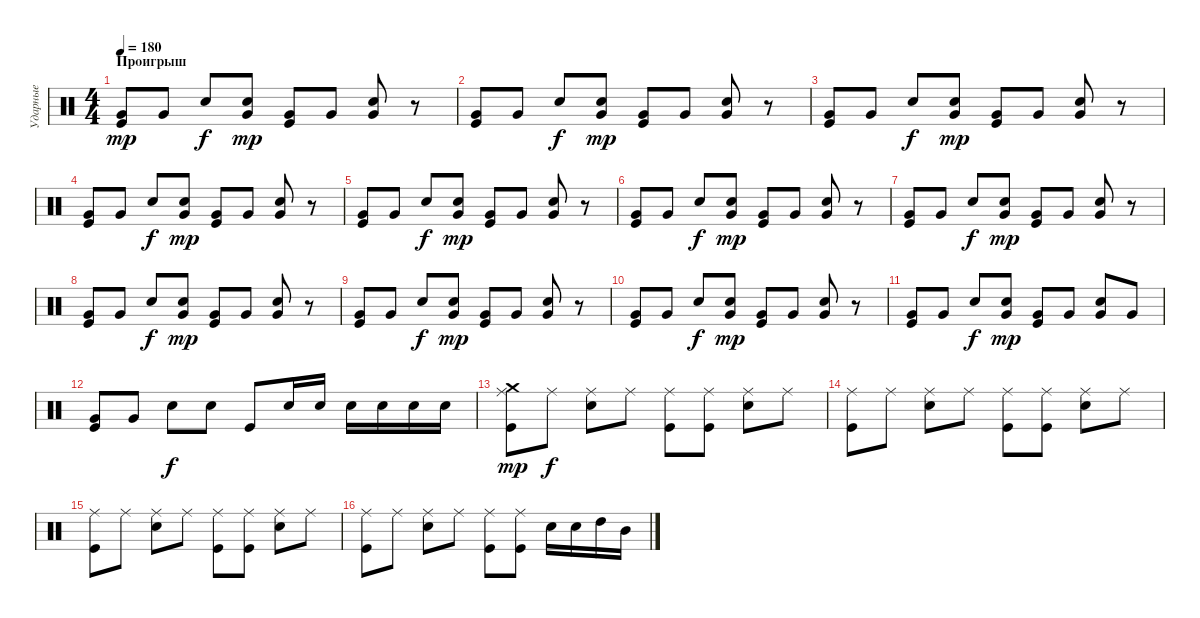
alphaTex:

\track ("Ударные" "Ударные") {instrument percussion}
\staff {score}
\articulation defaults
\ts (4 4)
\section ("" "Проигрыш")
\tempo 180
\clef neutral
\ks c
("Kick (hit)" "Very Low Tom (hit)").8{dy mp} "Very Low Tom (hit)".8 "Electric Snare (hit)".8{dy f} ("Electric Snare (hit)" "Very Low Tom (hit)").8{dy mp} ("Kick (hit)" "Very Low Tom (hit)").8 "Very Low Tom (hit)".8 ("Electric Snare (hit)" "Very Low Tom (hit)").8 r.8 |
("Kick (hit)" "Very Low Tom (hit)").8 "Very Low Tom (hit)".8 "Electric Snare (hit)".8{dy f} ("Electric Snare (hit)" "Very Low Tom (hit)").8{dy mp} ("Kick (hit)" "Very Low Tom (hit)").8 "Very Low Tom (hit)".8 ("Electric Snare (hit)" "Very Low Tom (hit)").8 r.8 |
("Kick (hit)" "Very Low Tom (hit)").8 "Very Low Tom (hit)".8 "Electric Snare (hit)".8{dy f} ("Electric Snare (hit)" "Very Low Tom (hit)").8{dy mp} ("Kick (hit)" "Very Low Tom (hit)").8 "Very Low Tom (hit)".8 ("Electric Snare (hit)" "Very Low Tom (hit)").8 r.8 |
("Kick (hit)" "Very Low Tom (hit)").8 "Very Low Tom (hit)".8 "Electric Snare (hit)".8{dy f} ("Electric Snare (hit)" "Very Low Tom (hit)").8{dy mp} ("Kick (hit)" "Very Low Tom (hit)").8 "Very Low Tom (hit)".8 ("Electric Snare (hit)" "Very Low Tom (hit)").8 r.8 |
("Kick (hit)" "Very Low Tom (hit)").8 "Very Low Tom (hit)".8 "Electric Snare (hit)".8{dy f} ("Electric Snare (hit)" "Very Low Tom (hit)").8{dy mp} ("Kick (hit)" "Very Low Tom (hit)").8 "Very Low Tom (hit)".8 ("Electric Snare (hit)" "Very Low Tom (hit)").8 r.8 |
("Kick (hit)" "Very Low Tom (hit)").8 "Very Low Tom (hit)".8 "Electric Snare (hit)".8{dy f} ("Electric Snare (hit)" "Very Low Tom (hit)").8{dy mp} ("Kick (hit)" "Very Low Tom (hit)").8 "Very Low Tom (hit)".8 ("Electric Snare (hit)" "Very Low Tom (hit)").8 r.8 |
("Kick (hit)" "Very Low Tom (hit)").8 "Very Low Tom (hit)".8 "Electric Snare (hit)".8{dy f} ("Electric Snare (hit)" "Very Low Tom (hit)").8{dy mp} ("Kick (hit)" "Very Low Tom (hit)").8 "Very Low Tom (hit)".8 ("Electric Snare (hit)" "Very Low Tom (hit)").8 r.8 |
("Kick (hit)" "Very Low Tom (hit)").8 "Very Low Tom (hit)".8 "Electric Snare (hit)".8{dy f} ("Electric Snare (hit)" "Very Low Tom (hit)").8{dy mp} ("Kick (hit)" "Very Low Tom (hit)").8 "Very Low Tom (hit)".8 ("Electric Snare (hit)" "Very Low Tom (hit)").8 r.8 |
("Kick (hit)" "Very Low Tom (hit)").8 "Very Low Tom (hit)".8 "Electric Snare (hit)".8{dy f} ("Electric Snare (hit)" "Very Low Tom (hit)").8{dy mp} ("Kick (hit)" "Very Low Tom (hit)").8 "Very Low Tom (hit)".8 ("Electric Snare (hit)" "Very Low Tom (hit)").8 r.8 |
("Kick (hit)" "Very Low Tom (hit)").8 "Very Low Tom (hit)".8 "Electric Snare (hit)".8{dy f} ("Electric Snare (hit)" "Very Low Tom (hit)").8{dy mp} ("Kick (hit)" "Very Low Tom (hit)").8 "Very Low Tom (hit)".8 ("Electric Snare (hit)" "Very Low Tom (hit)").8 r.8 |
("Kick (hit)" "Very Low Tom (hit)").8 "Very Low Tom (hit)".8 "Electric Snare (hit)".8{dy f} ("Electric Snare (hit)" "Very Low Tom (hit)").8{dy mp} ("Kick (hit)" "Very Low Tom (hit)").8 "Very Low Tom (hit)".8 ("Electric Snare (hit)" "Very Low Tom (hit)").8 "Very Low Tom (hit)".8 |
("Kick (hit)" "Very Low Tom (hit)").8 "Very Low Tom (hit)".8 "Electric Snare (hit)".8{dy f} "Electric Snare (hit)".8 "Kick (hit)".8 "Electric Snare (hit)".16 "Electric Snare (hit)".16 "Electric Snare (hit)".16 "Electric Snare (hit)".16 "Electric Snare (hit)".16 "Electric Snare (hit)".16 |
("Ride (middle)" "Kick (hit)" "Crash medium (hit)").8{dy mp} "Ride (middle)".8{dy f} ("Ride (middle)" "Electric Snare (hit)").8 "Ride (middle)".8 ("Ride (middle)" "Kick (hit)").8 ("Ride (middle)" "Kick (hit)").8 ("Ride (middle)" "Electric Snare (hit)").8 "Ride (middle)".8 |
("Ride (middle)" "Kick (hit)").8 "Ride (middle)".8 ("Ride (middle)" "Electric Snare (hit)").8 "Ride (middle)".8 ("Ride (middle)" "Kick (hit)").8 ("Ride (middle)" "Kick (hit)").8 ("Ride (middle)" "Electric Snare (hit)").8 "Ride (middle)".8 |
("Ride (middle)" "Kick (hit)").8 "Ride (middle)".8 ("Ride (middle)" "Electric Snare (hit)").8 "Ride (middle)".8 ("Ride (middle)" "Kick (hit)").8 ("Ride (middle)" "Kick (hit)").8 ("Ride (middle)" "Electric Snare (hit)").8 "Ride (middle)".8 |
("Ride (middle)" "Kick (hit)").8 "Ride (middle)".8 ("Ride (middle)" "Electric Snare (hit)").8 "Ride (middle)".8 ("Ride (middle)" "Kick (hit)").8 ("Ride (middle)" "Kick (hit)").8 "Electric Snare (hit)".16 "Electric Snare (hit)".16 "High Tom (hit)".16 "Mid Tom (hit)".16
